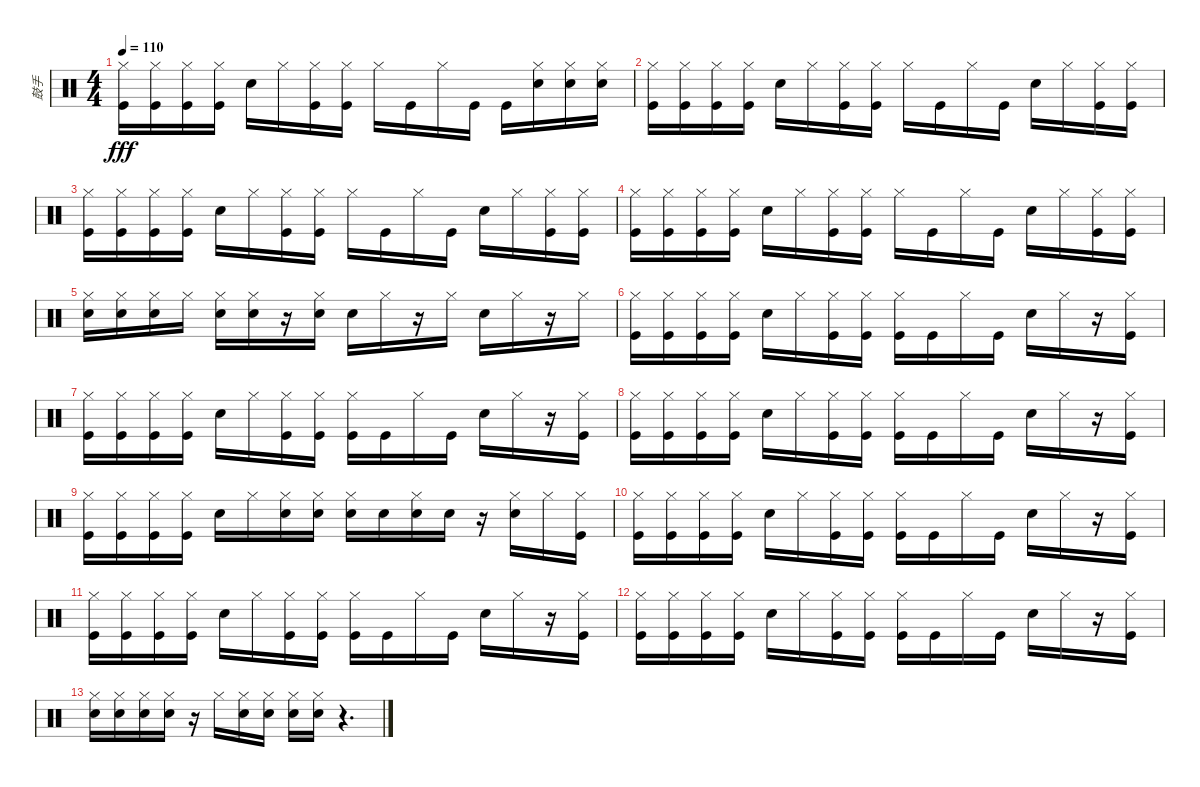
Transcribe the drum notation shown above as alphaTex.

\track ("鼓手" "鼓手") {instrument percussion}
\staff {score}
\articulation defaults
\ts (4 4)
\tempo 110
\clef neutral
\ks c
("Kick (hit)" "Hi-Hat (closed)").16{dy fff} ("Kick (hit)" "Hi-Hat (closed)").16 ("Kick (hit)" "Hi-Hat (closed)").16 ("Kick (hit)" "Hi-Hat (closed)").16 "Snare (hit) 2".16 "Hi-Hat (closed)".16 ("Kick (hit)" "Hi-Hat (closed)").16 ("Kick (hit)" "Hi-Hat (closed)").16 "Hi-Hat (closed)".16 "Kick (hit)".16 "Hi-Hat (closed)".16 "Kick (hit)".16 "Kick (hit)".16 ("Snare (hit) 2" "Hi-Hat (closed)").16 ("Snare (hit) 2" "Hi-Hat (closed)").16 ("Snare (hit) 2" "Hi-Hat (closed)").16 |
("Kick (hit)" "Hi-Hat (closed)").16 ("Kick (hit)" "Hi-Hat (closed)").16 ("Kick (hit)" "Hi-Hat (closed)").16 ("Kick (hit)" "Hi-Hat (closed)").16 "Snare (hit) 2".16 "Hi-Hat (closed)".16 ("Kick (hit)" "Hi-Hat (closed)").16 ("Kick (hit)" "Hi-Hat (closed)").16 "Hi-Hat (closed)".16 "Kick (hit)".16 "Hi-Hat (closed)".16 "Kick (hit)".16 "Snare (hit) 2".16 "Hi-Hat (closed)".16 ("Kick (hit)" "Hi-Hat (closed)").16 ("Kick (hit)" "Hi-Hat (closed)").16 |
("Kick (hit)" "Hi-Hat (closed)").16 ("Kick (hit)" "Hi-Hat (closed)").16 ("Kick (hit)" "Hi-Hat (closed)").16 ("Kick (hit)" "Hi-Hat (closed)").16 "Snare (hit) 2".16 "Hi-Hat (closed)".16 ("Kick (hit)" "Hi-Hat (closed)").16 ("Kick (hit)" "Hi-Hat (closed)").16 "Hi-Hat (closed)".16 "Kick (hit)".16 "Hi-Hat (closed)".16 "Kick (hit)".16 "Snare (hit) 2".16 "Hi-Hat (closed)".16 ("Kick (hit)" "Hi-Hat (closed)").16 ("Kick (hit)" "Hi-Hat (closed)").16 |
("Kick (hit)" "Hi-Hat (closed)").16 ("Kick (hit)" "Hi-Hat (closed)").16 ("Kick (hit)" "Hi-Hat (closed)").16 ("Kick (hit)" "Hi-Hat (closed)").16 "Snare (hit) 2".16 "Hi-Hat (closed)".16 ("Kick (hit)" "Hi-Hat (closed)").16 ("Kick (hit)" "Hi-Hat (closed)").16 "Hi-Hat (closed)".16 "Kick (hit)".16 "Hi-Hat (closed)".16 "Kick (hit)".16 "Snare (hit) 2".16 "Hi-Hat (closed)".16 ("Kick (hit)" "Hi-Hat (closed)").16 ("Kick (hit)" "Hi-Hat (closed)").16 |
("Snare (hit) 2" "Hi-Hat (closed)").16 ("Snare (hit) 2" "Hi-Hat (closed)").16 ("Snare (hit) 2" "Hi-Hat (closed)").16 "Hi-Hat (closed)".16 ("Snare (hit) 2" "Hi-Hat (closed)").16 ("Snare (hit) 2" "Hi-Hat (closed)").16 r.16 ("Snare (hit) 2" "Hi-Hat (closed)").16 "Snare (hit) 2".16 "Hi-Hat (closed)".16 r.16 "Hi-Hat (closed)".16 "Snare (hit) 2".16 "Hi-Hat (closed)".16 r.16 "Hi-Hat (closed)".16 |
("Kick (hit)" "Hi-Hat (closed)").16 ("Kick (hit)" "Hi-Hat (closed)").16 ("Kick (hit)" "Hi-Hat (closed)").16 ("Kick (hit)" "Hi-Hat (closed)").16 "Snare (hit) 2".16 "Hi-Hat (closed)".16 ("Kick (hit)" "Hi-Hat (closed)").16 ("Kick (hit)" "Hi-Hat (closed)").16 ("Kick (hit)" "Hi-Hat (closed)").16 "Kick (hit)".16 "Hi-Hat (closed)".16 "Kick (hit)".16 "Snare (hit) 2".16 "Hi-Hat (closed)".16 r.16 ("Kick (hit)" "Hi-Hat (closed)").16 |
("Kick (hit)" "Hi-Hat (closed)").16 ("Kick (hit)" "Hi-Hat (closed)").16 ("Kick (hit)" "Hi-Hat (closed)").16 ("Kick (hit)" "Hi-Hat (closed)").16 "Snare (hit) 2".16 "Hi-Hat (closed)".16 ("Kick (hit)" "Hi-Hat (closed)").16 ("Kick (hit)" "Hi-Hat (closed)").16 ("Kick (hit)" "Hi-Hat (closed)").16 "Kick (hit)".16 "Hi-Hat (closed)".16 "Kick (hit)".16 "Snare (hit) 2".16 "Hi-Hat (closed)".16 r.16 ("Kick (hit)" "Hi-Hat (closed)").16 |
("Kick (hit)" "Hi-Hat (closed)").16 ("Kick (hit)" "Hi-Hat (closed)").16 ("Kick (hit)" "Hi-Hat (closed)").16 ("Kick (hit)" "Hi-Hat (closed)").16 "Snare (hit) 2".16 "Hi-Hat (closed)".16 ("Kick (hit)" "Hi-Hat (closed)").16 ("Kick (hit)" "Hi-Hat (closed)").16 ("Kick (hit)" "Hi-Hat (closed)").16 "Kick (hit)".16 "Hi-Hat (closed)".16 "Kick (hit)".16 "Snare (hit) 2".16 "Hi-Hat (closed)".16 r.16 ("Kick (hit)" "Hi-Hat (closed)").16 |
("Kick (hit)" "Hi-Hat (closed)").16 ("Kick (hit)" "Hi-Hat (closed)").16 ("Kick (hit)" "Hi-Hat (closed)").16 ("Kick (hit)" "Hi-Hat (closed)").16 "Snare (hit) 2".16 "Hi-Hat (closed)".16 ("Snare (hit) 2" "Hi-Hat (closed)").16 ("Snare (hit) 2" "Hi-Hat (closed)").16 ("Snare (hit) 2" "Hi-Hat (closed)").16 "Snare (hit) 2".16 ("Snare (hit) 2" "Hi-Hat (closed)").16 "Snare (hit) 2".16 r.16 ("Snare (hit) 2" "Hi-Hat (closed)").16 "Hi-Hat (closed)".16 ("Kick (hit)" "Hi-Hat (closed)").16 |
("Kick (hit)" "Hi-Hat (closed)").16 ("Kick (hit)" "Hi-Hat (closed)").16 ("Kick (hit)" "Hi-Hat (closed)").16 ("Kick (hit)" "Hi-Hat (closed)").16 "Snare (hit) 2".16 "Hi-Hat (closed)".16 ("Kick (hit)" "Hi-Hat (closed)").16 ("Kick (hit)" "Hi-Hat (closed)").16 ("Kick (hit)" "Hi-Hat (closed)").16 "Kick (hit)".16 "Hi-Hat (closed)".16 "Kick (hit)".16 "Snare (hit) 2".16 "Hi-Hat (closed)".16 r.16 ("Kick (hit)" "Hi-Hat (closed)").16 |
("Kick (hit)" "Hi-Hat (closed)").16 ("Kick (hit)" "Hi-Hat (closed)").16 ("Kick (hit)" "Hi-Hat (closed)").16 ("Kick (hit)" "Hi-Hat (closed)").16 "Snare (hit) 2".16 "Hi-Hat (closed)".16 ("Kick (hit)" "Hi-Hat (closed)").16 ("Kick (hit)" "Hi-Hat (closed)").16 ("Kick (hit)" "Hi-Hat (closed)").16 "Kick (hit)".16 "Hi-Hat (closed)".16 "Kick (hit)".16 "Snare (hit) 2".16 "Hi-Hat (closed)".16 r.16 ("Kick (hit)" "Hi-Hat (closed)").16 |
("Kick (hit)" "Hi-Hat (closed)").16 ("Kick (hit)" "Hi-Hat (closed)").16 ("Kick (hit)" "Hi-Hat (closed)").16 ("Kick (hit)" "Hi-Hat (closed)").16 "Snare (hit) 2".16 "Hi-Hat (closed)".16 ("Kick (hit)" "Hi-Hat (closed)").16 ("Kick (hit)" "Hi-Hat (closed)").16 ("Kick (hit)" "Hi-Hat (closed)").16 "Kick (hit)".16 "Hi-Hat (closed)".16 "Kick (hit)".16 "Snare (hit) 2".16 "Hi-Hat (closed)".16 r.16 ("Kick (hit)" "Hi-Hat (closed)").16 |
("Snare (hit) 2" "Hi-Hat (closed)").16 ("Snare (hit) 2" "Hi-Hat (closed)").16 ("Snare (hit) 2" "Hi-Hat (closed)").16 ("Snare (hit) 2" "Hi-Hat (closed)").16 r.16 "Hi-Hat (closed)".16 ("Snare (hit) 2" "Hi-Hat (closed)").16 ("Snare (hit) 2" "Hi-Hat (closed)").16 ("Snare (hit) 2" "Hi-Hat (closed)").16 ("Snare (hit) 2" "Hi-Hat (closed)").16 r.4{d}
